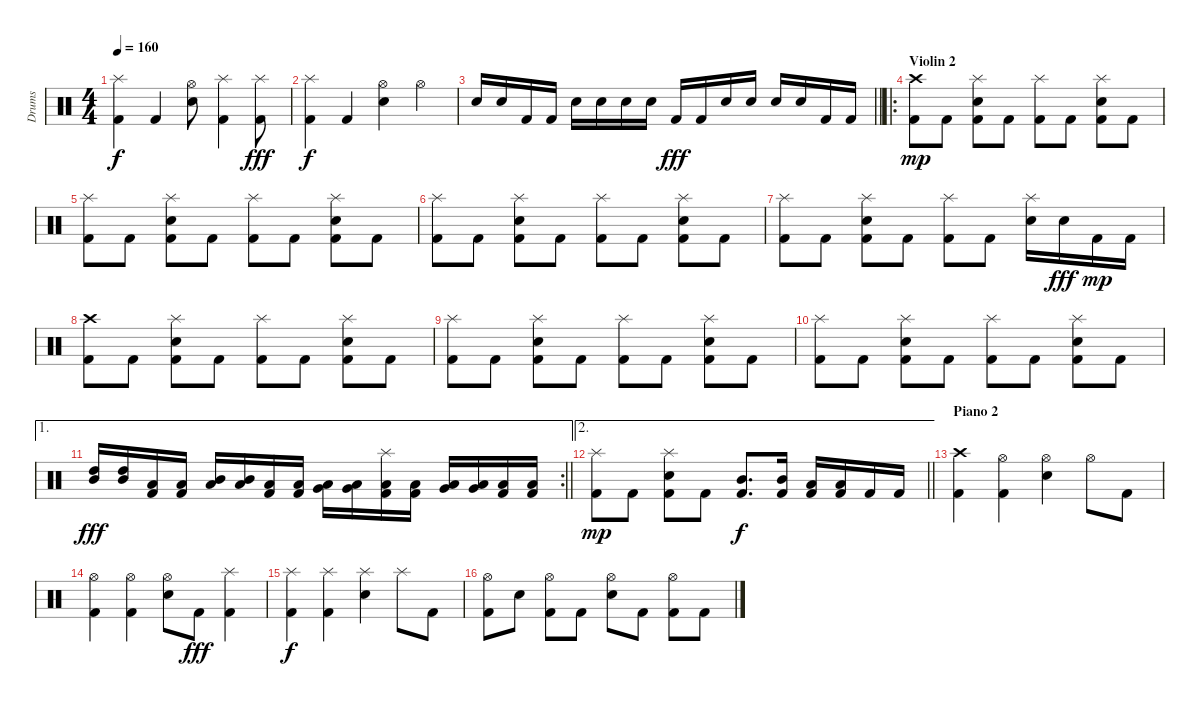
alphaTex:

\track ("Drums" "Drums") {instrument percussion}
\staff {score}
\articulation defaults
\ts (4 4)
\tempo 160
\clef neutral
\ks c
("Splash (hit)" "Kick (hit) 2").4{dy f} "Kick (hit) 2".4 ("Hi-Hat (open)" "Electric Snare (hit)").8 ("Splash (hit)" "Kick (hit) 2").4 ("Splash (hit)" "Kick (hit) 2").8{dy fff} |
("Splash (hit)" "Kick (hit) 2").4{dy f} "Kick (hit) 2".4 ("Hi-Hat (open)" "Electric Snare (hit)").4 "Hi-Hat (open)".4 |
\barLineRight lightlight "Electric Snare (hit)".16 "Electric Snare (hit)".16 "Kick (hit) 2".16 "Kick (hit) 2".16 "Electric Snare (hit)".16 "Electric Snare (hit)".16 "Electric Snare (hit)".16 "Electric Snare (hit)".16 "Kick (hit) 2".16{dy fff} "Kick (hit) 2".16 "Electric Snare (hit)".16 "Electric Snare (hit)".16 "Electric Snare (hit)".16 "Electric Snare (hit)".16 "Kick (hit) 2".16 "Kick (hit) 2".16
|
\ro
\section ("" "Violin 2")
("Crash high (hit)" "Kick (hit) 2").8{dy mp} "Kick (hit) 2".8 ("Electric Snare (hit)" "Splash (hit)" "Kick (hit) 2").8 "Kick (hit) 2".8 ("Splash (hit)" "Kick (hit) 2").8 "Kick (hit) 2".8 ("Electric Snare (hit)" "Splash (hit)" "Kick (hit) 2").8 "Kick (hit) 2".8 |
("Splash (hit)" "Kick (hit) 2").8 "Kick (hit) 2".8 ("Electric Snare (hit)" "Splash (hit)" "Kick (hit) 2").8 "Kick (hit) 2".8 ("Splash (hit)" "Kick (hit) 2").8 "Kick (hit) 2".8 ("Electric Snare (hit)" "Splash (hit)" "Kick (hit) 2").8 "Kick (hit) 2".8 |
("Splash (hit)" "Kick (hit) 2").8 "Kick (hit) 2".8 ("Electric Snare (hit)" "Splash (hit)" "Kick (hit) 2").8 "Kick (hit) 2".8 ("Splash (hit)" "Kick (hit) 2").8 "Kick (hit) 2".8 ("Electric Snare (hit)" "Splash (hit)" "Kick (hit) 2").8 "Kick (hit) 2".8 |
("Splash (hit)" "Kick (hit) 2").8 "Kick (hit) 2".8 ("Electric Snare (hit)" "Splash (hit)" "Kick (hit) 2").8 "Kick (hit) 2".8 ("Splash (hit)" "Kick (hit) 2").8 "Kick (hit) 2".8 ("Electric Snare (hit)" "Splash (hit)").16 "Electric Snare (hit)".16{dy fff} "Kick (hit) 2".16{dy mp} "Kick (hit) 2".16 |
("Crash high (hit)" "Kick (hit) 2").8 "Kick (hit) 2".8 ("Electric Snare (hit)" "Splash (hit)" "Kick (hit) 2").8 "Kick (hit) 2".8 ("Splash (hit)" "Kick (hit) 2").8 "Kick (hit) 2".8 ("Electric Snare (hit)" "Splash (hit)" "Kick (hit) 2").8 "Kick (hit) 2".8 |
("Splash (hit)" "Kick (hit) 2").8 "Kick (hit) 2".8 ("Electric Snare (hit)" "Splash (hit)" "Kick (hit) 2").8 "Kick (hit) 2".8 ("Splash (hit)" "Kick (hit) 2").8 "Kick (hit) 2".8 ("Electric Snare (hit)" "Splash (hit)" "Kick (hit) 2").8 "Kick (hit) 2".8 |
("Splash (hit)" "Kick (hit) 2").8 "Kick (hit) 2".8 ("Electric Snare (hit)" "Splash (hit)" "Kick (hit) 2").8 "Kick (hit) 2".8 ("Splash (hit)" "Kick (hit) 2").8 "Kick (hit) 2".8 ("Electric Snare (hit)" "Splash (hit)" "Kick (hit) 2").8 "Kick (hit) 2".8 |
\ae 1
\rc 2
\barLineRight lightlight
("Mid Tom (hit)" "High Tom (hit)").16{dy fff} ("Mid Tom (hit)" "High Tom (hit)").16 ("Low Floor Tom (hit)" "Kick (hit) 2").16 ("Low Floor Tom (hit)" "Kick (hit) 2").16 ("Low Tom (hit)" "Mid Tom (hit)").16 ("Low Tom (hit)" "Mid Tom (hit)").16 ("Low Floor Tom (hit)" "Kick (hit) 2").16 ("Low Floor Tom (hit)" "Kick (hit) 2").16 ("Very Low Tom (hit)" "Low Tom (hit)").16 ("Very Low Tom (hit)" "Low Tom (hit)").16 ("Splash (hit)" "Low Floor Tom (hit)" "Kick (hit) 2").16 ("Low Floor Tom (hit)" "Kick (hit) 2").16 ("Very Low Tom (hit)" "Low Tom (hit)").16 ("Very Low Tom (hit)" "Low Tom (hit)").16 ("Low Floor Tom (hit)" "Kick (hit) 2").16 ("Low Floor Tom (hit)" "Kick (hit) 2").16 |
\ae 2
\barLineRight lightlight
("Splash (hit)" "Kick (hit) 2").8{dy mp} "Kick (hit) 2".8 ("Electric Snare (hit)" "Splash (hit)" "Kick (hit) 2").8 "Kick (hit) 2".8 ("Mid Tom (hit)" "Kick (hit) 2").8{d dy f} ("Mid Tom (hit)" "Kick (hit) 2").16 ("Low Tom (hit)" "Kick (hit) 2").16 ("Low Tom (hit)" "Kick (hit) 2").16 "Kick (hit) 2".16 "Kick (hit) 2".16 |
\section ("" "Piano 2")
("Crash high (hit)" "Kick (hit) 2").4 ("Hi-Hat (open)" "Kick (hit) 2").4 ("Hi-Hat (open)" "Electric Snare (hit)").4 "Hi-Hat (open)".8 "Kick (hit) 2".8 |
("Hi-Hat (open)" "Kick (hit) 2").4 ("Hi-Hat (open)" "Kick (hit) 2").4 ("Hi-Hat (open)" "Electric Snare (hit)").8 "Kick (hit) 2".8{dy fff} ("Splash (hit)" "Kick (hit) 2").4 |
("Splash (hit)" "Kick (hit) 2").4{dy f} ("Splash (hit)" "Kick (hit) 2").4 ("Splash (hit)" "Electric Snare (hit)").4 "Splash (hit)".8 "Kick (hit) 2".8 |
("Hi-Hat (open)" "Kick (hit) 2").8 "Electric Snare (hit)".8 ("Hi-Hat (open)" "Kick (hit) 2").8 "Kick (hit) 2".8 ("Hi-Hat (open)" "Electric Snare (hit)").8 "Kick (hit) 2".8 ("Hi-Hat (open)" "Kick (hit) 2").8 "Kick (hit) 2".8
